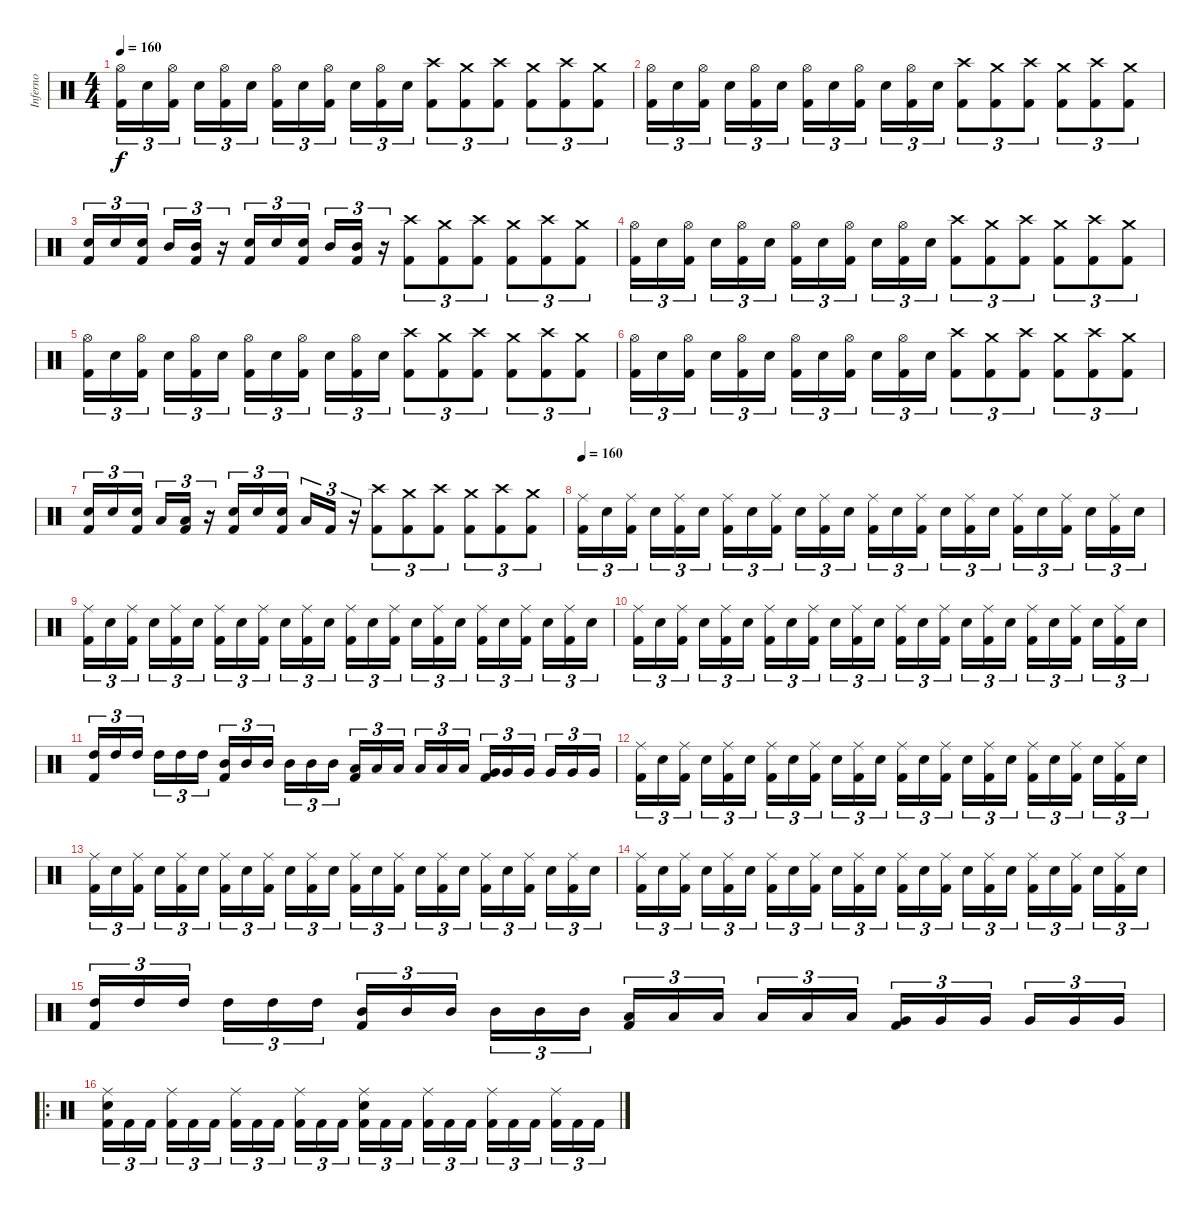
\track ("Inferno" "Inferno") {instrument percussion}
\staff {score}
\articulation defaults
\ts (4 4)
\tempo 160
\clef neutral
\ks c
("Hi-Hat (open)" "Kick (hit) 2").16{tu (3 2) dy f} "Electric Snare (hit)".16{tu (3 2)} ("Hi-Hat (open)" "Kick (hit) 2").16{tu (3 2)} "Electric Snare (hit)".16{tu (3 2)} ("Hi-Hat (open)" "Kick (hit) 2").16{tu (3 2)} "Electric Snare (hit)".16{tu (3 2)} ("Hi-Hat (open)" "Kick (hit) 2").16{tu (3 2)} "Electric Snare (hit)".16{tu (3 2)} ("Hi-Hat (open)" "Kick (hit) 2").16{tu (3 2)} "Electric Snare (hit)".16{tu (3 2)} ("Hi-Hat (open)" "Kick (hit) 2").16{tu (3 2)} "Electric Snare (hit)".16{tu (3 2)} ("Crash high (hit)" "Kick (hit) 2").8{tu (3 2)} ("Crash medium (hit)" "Kick (hit) 2").8{tu (3 2)} ("Crash high (hit)" "Kick (hit) 2").8{tu (3 2)} ("Crash medium (hit)" "Kick (hit) 2").8{tu (3 2)} ("Crash high (hit)" "Kick (hit) 2").8{tu (3 2)} ("Crash medium (hit)" "Kick (hit) 2").8{tu (3 2)} |
("Hi-Hat (open)" "Kick (hit) 2").16{tu (3 2)} "Electric Snare (hit)".16{tu (3 2)} ("Hi-Hat (open)" "Kick (hit) 2").16{tu (3 2)} "Electric Snare (hit)".16{tu (3 2)} ("Hi-Hat (open)" "Kick (hit) 2").16{tu (3 2)} "Electric Snare (hit)".16{tu (3 2)} ("Hi-Hat (open)" "Kick (hit) 2").16{tu (3 2)} "Electric Snare (hit)".16{tu (3 2)} ("Hi-Hat (open)" "Kick (hit) 2").16{tu (3 2)} "Electric Snare (hit)".16{tu (3 2)} ("Hi-Hat (open)" "Kick (hit) 2").16{tu (3 2)} "Electric Snare (hit)".16{tu (3 2)} ("Crash high (hit)" "Kick (hit) 2").8{tu (3 2)} ("Crash medium (hit)" "Kick (hit) 2").8{tu (3 2)} ("Crash high (hit)" "Kick (hit) 2").8{tu (3 2)} ("Crash medium (hit)" "Kick (hit) 2").8{tu (3 2)} ("Crash high (hit)" "Kick (hit) 2").8{tu (3 2)} ("Crash medium (hit)" "Kick (hit) 2").8{tu (3 2)} |
("Electric Snare (hit)" "Kick (hit) 2").16{tu (3 2)} "Electric Snare (hit)".16{tu (3 2)} ("Electric Snare (hit)" "Kick (hit) 2").16{tu (3 2)} "Mid Tom (hit)".16{tu (3 2)} ("Mid Tom (hit)" "Kick (hit) 2").16{tu (3 2)} r.16{tu (3 2)} ("Electric Snare (hit)" "Kick (hit) 2").16{tu (3 2)} "Electric Snare (hit)".16{tu (3 2)} ("Electric Snare (hit)" "Kick (hit) 2").16{tu (3 2)} "Mid Tom (hit)".16{tu (3 2)} ("Mid Tom (hit)" "Kick (hit) 2").16{tu (3 2)} r.16{tu (3 2)} ("Crash high (hit)" "Kick (hit) 2").8{tu (3 2)} ("Crash medium (hit)" "Kick (hit) 2").8{tu (3 2)} ("Crash high (hit)" "Kick (hit) 2").8{tu (3 2)} ("Crash medium (hit)" "Kick (hit) 2").8{tu (3 2)} ("Crash high (hit)" "Kick (hit) 2").8{tu (3 2)} ("Crash medium (hit)" "Kick (hit) 2").8{tu (3 2)} |
("Hi-Hat (open)" "Kick (hit) 2").16{tu (3 2)} "Electric Snare (hit)".16{tu (3 2)} ("Hi-Hat (open)" "Kick (hit) 2").16{tu (3 2)} "Electric Snare (hit)".16{tu (3 2)} ("Hi-Hat (open)" "Kick (hit) 2").16{tu (3 2)} "Electric Snare (hit)".16{tu (3 2)} ("Hi-Hat (open)" "Kick (hit) 2").16{tu (3 2)} "Electric Snare (hit)".16{tu (3 2)} ("Hi-Hat (open)" "Kick (hit) 2").16{tu (3 2)} "Electric Snare (hit)".16{tu (3 2)} ("Hi-Hat (open)" "Kick (hit) 2").16{tu (3 2)} "Electric Snare (hit)".16{tu (3 2)} ("Crash high (hit)" "Kick (hit) 2").8{tu (3 2)} ("Crash medium (hit)" "Kick (hit) 2").8{tu (3 2)} ("Crash high (hit)" "Kick (hit) 2").8{tu (3 2)} ("Crash medium (hit)" "Kick (hit) 2").8{tu (3 2)} ("Crash high (hit)" "Kick (hit) 2").8{tu (3 2)} ("Crash medium (hit)" "Kick (hit) 2").8{tu (3 2)} |
("Hi-Hat (open)" "Kick (hit) 2").16{tu (3 2)} "Electric Snare (hit)".16{tu (3 2)} ("Hi-Hat (open)" "Kick (hit) 2").16{tu (3 2)} "Electric Snare (hit)".16{tu (3 2)} ("Hi-Hat (open)" "Kick (hit) 2").16{tu (3 2)} "Electric Snare (hit)".16{tu (3 2)} ("Hi-Hat (open)" "Kick (hit) 2").16{tu (3 2)} "Electric Snare (hit)".16{tu (3 2)} ("Hi-Hat (open)" "Kick (hit) 2").16{tu (3 2)} "Electric Snare (hit)".16{tu (3 2)} ("Hi-Hat (open)" "Kick (hit) 2").16{tu (3 2)} "Electric Snare (hit)".16{tu (3 2)} ("Crash high (hit)" "Kick (hit) 2").8{tu (3 2)} ("Crash medium (hit)" "Kick (hit) 2").8{tu (3 2)} ("Crash high (hit)" "Kick (hit) 2").8{tu (3 2)} ("Crash medium (hit)" "Kick (hit) 2").8{tu (3 2)} ("Crash high (hit)" "Kick (hit) 2").8{tu (3 2)} ("Crash medium (hit)" "Kick (hit) 2").8{tu (3 2)} |
("Hi-Hat (open)" "Kick (hit) 2").16{tu (3 2)} "Electric Snare (hit)".16{tu (3 2)} ("Hi-Hat (open)" "Kick (hit) 2").16{tu (3 2)} "Electric Snare (hit)".16{tu (3 2)} ("Hi-Hat (open)" "Kick (hit) 2").16{tu (3 2)} "Electric Snare (hit)".16{tu (3 2)} ("Hi-Hat (open)" "Kick (hit) 2").16{tu (3 2)} "Electric Snare (hit)".16{tu (3 2)} ("Hi-Hat (open)" "Kick (hit) 2").16{tu (3 2)} "Electric Snare (hit)".16{tu (3 2)} ("Hi-Hat (open)" "Kick (hit) 2").16{tu (3 2)} "Electric Snare (hit)".16{tu (3 2)} ("Crash high (hit)" "Kick (hit) 2").8{tu (3 2)} ("Crash medium (hit)" "Kick (hit) 2").8{tu (3 2)} ("Crash high (hit)" "Kick (hit) 2").8{tu (3 2)} ("Crash medium (hit)" "Kick (hit) 2").8{tu (3 2)} ("Crash high (hit)" "Kick (hit) 2").8{tu (3 2)} ("Crash medium (hit)" "Kick (hit) 2").8{tu (3 2)} |
("Electric Snare (hit)" "Kick (hit) 2").16{tu (3 2)} "Electric Snare (hit)".16{tu (3 2)} ("Electric Snare (hit)" "Kick (hit) 2").16{tu (3 2)} "Low Tom (hit)".16{tu (3 2)} ("Low Tom (hit)" "Kick (hit) 2").16{tu (3 2)} r.16{tu (3 2)} ("Electric Snare (hit)" "Kick (hit) 2").16{tu (3 2)} "Electric Snare (hit)".16{tu (3 2)} ("Electric Snare (hit)" "Kick (hit) 2").16{tu (3 2)} "Low Tom (hit)".16{tu (3 2)} "Kick (hit) 2".16{tu (3 2)} r.16{tu (3 2)} ("Crash high (hit)" "Kick (hit) 2").8{tu (3 2)} ("Crash medium (hit)" "Kick (hit) 2").8{tu (3 2)} ("Crash high (hit)" "Kick (hit) 2").8{tu (3 2)} ("Crash medium (hit)" "Kick (hit) 2").8{tu (3 2)} ("Crash high (hit)" "Kick (hit) 2").8{tu (3 2)} ("Crash medium (hit)" "Kick (hit) 2").8{tu (3 2)} |
\tempo 160
("Ride (middle)" "Kick (hit) 2").16{tu (3 2)} "Electric Snare (hit)".16{tu (3 2)} ("Ride (middle)" "Kick (hit) 2").16{tu (3 2)} "Electric Snare (hit)".16{tu (3 2)} ("Ride (middle)" "Kick (hit) 2").16{tu (3 2)} "Electric Snare (hit)".16{tu (3 2)} ("Ride (middle)" "Kick (hit) 2").16{tu (3 2)} "Electric Snare (hit)".16{tu (3 2)} ("Ride (middle)" "Kick (hit) 2").16{tu (3 2)} "Electric Snare (hit)".16{tu (3 2)} ("Ride (middle)" "Kick (hit) 2").16{tu (3 2)} "Electric Snare (hit)".16{tu (3 2)} ("Ride (middle)" "Kick (hit) 2").16{tu (3 2)} "Electric Snare (hit)".16{tu (3 2)} ("Ride (middle)" "Kick (hit) 2").16{tu (3 2)} "Electric Snare (hit)".16{tu (3 2)} ("Ride (middle)" "Kick (hit) 2").16{tu (3 2)} "Electric Snare (hit)".16{tu (3 2)} ("Ride (middle)" "Kick (hit) 2").16{tu (3 2)} "Electric Snare (hit)".16{tu (3 2)} ("Ride (middle)" "Kick (hit) 2").16{tu (3 2)} "Electric Snare (hit)".16{tu (3 2)} ("Ride (middle)" "Kick (hit) 2").16{tu (3 2)} "Electric Snare (hit)".16{tu (3 2)} |
("Ride (middle)" "Kick (hit) 2").16{tu (3 2)} "Electric Snare (hit)".16{tu (3 2)} ("Ride (middle)" "Kick (hit) 2").16{tu (3 2)} "Electric Snare (hit)".16{tu (3 2)} ("Ride (middle)" "Kick (hit) 2").16{tu (3 2)} "Electric Snare (hit)".16{tu (3 2)} ("Ride (middle)" "Kick (hit) 2").16{tu (3 2)} "Electric Snare (hit)".16{tu (3 2)} ("Ride (middle)" "Kick (hit) 2").16{tu (3 2)} "Electric Snare (hit)".16{tu (3 2)} ("Ride (middle)" "Kick (hit) 2").16{tu (3 2)} "Electric Snare (hit)".16{tu (3 2)} ("Ride (middle)" "Kick (hit) 2").16{tu (3 2)} "Electric Snare (hit)".16{tu (3 2)} ("Ride (middle)" "Kick (hit) 2").16{tu (3 2)} "Electric Snare (hit)".16{tu (3 2)} ("Ride (middle)" "Kick (hit) 2").16{tu (3 2)} "Electric Snare (hit)".16{tu (3 2)} ("Ride (middle)" "Kick (hit) 2").16{tu (3 2)} "Electric Snare (hit)".16{tu (3 2)} ("Ride (middle)" "Kick (hit) 2").16{tu (3 2)} "Electric Snare (hit)".16{tu (3 2)} ("Ride (middle)" "Kick (hit) 2").16{tu (3 2)} "Electric Snare (hit)".16{tu (3 2)} |
("Ride (middle)" "Kick (hit) 2").16{tu (3 2)} "Electric Snare (hit)".16{tu (3 2)} ("Ride (middle)" "Kick (hit) 2").16{tu (3 2)} "Electric Snare (hit)".16{tu (3 2)} ("Ride (middle)" "Kick (hit) 2").16{tu (3 2)} "Electric Snare (hit)".16{tu (3 2)} ("Ride (middle)" "Kick (hit) 2").16{tu (3 2)} "Electric Snare (hit)".16{tu (3 2)} ("Ride (middle)" "Kick (hit) 2").16{tu (3 2)} "Electric Snare (hit)".16{tu (3 2)} ("Ride (middle)" "Kick (hit) 2").16{tu (3 2)} "Electric Snare (hit)".16{tu (3 2)} ("Ride (middle)" "Kick (hit) 2").16{tu (3 2)} "Electric Snare (hit)".16{tu (3 2)} ("Ride (middle)" "Kick (hit) 2").16{tu (3 2)} "Electric Snare (hit)".16{tu (3 2)} ("Ride (middle)" "Kick (hit) 2").16{tu (3 2)} "Electric Snare (hit)".16{tu (3 2)} ("Ride (middle)" "Kick (hit) 2").16{tu (3 2)} "Electric Snare (hit)".16{tu (3 2)} ("Ride (middle)" "Kick (hit) 2").16{tu (3 2)} "Electric Snare (hit)".16{tu (3 2)} ("Ride (middle)" "Kick (hit) 2").16{tu (3 2)} "Electric Snare (hit)".16{tu (3 2)} |
("High Tom (hit)" "Kick (hit) 2").16{tu (3 2)} "High Tom (hit)".16{tu (3 2)} "High Tom (hit)".16{tu (3 2)} "High Tom (hit)".16{tu (3 2)} "High Tom (hit)".16{tu (3 2)} "High Tom (hit)".16{tu (3 2)} ("Mid Tom (hit)" "Kick (hit) 2").16{tu (3 2)} "Mid Tom (hit)".16{tu (3 2)} "Mid Tom (hit)".16{tu (3 2)} "Mid Tom (hit)".16{tu (3 2)} "Mid Tom (hit)".16{tu (3 2)} "Mid Tom (hit)".16{tu (3 2)} ("Low Tom (hit)" "Kick (hit) 2").16{tu (3 2)} "Low Tom (hit)".16{tu (3 2)} "Low Tom (hit)".16{tu (3 2)} "Low Tom (hit)".16{tu (3 2)} "Low Tom (hit)".16{tu (3 2)} "Low Tom (hit)".16{tu (3 2)} ("Very Low Tom (hit)" "Kick (hit) 2").16{tu (3 2)} "Very Low Tom (hit)".16{tu (3 2)} "Very Low Tom (hit)".16{tu (3 2)} "Very Low Tom (hit)".16{tu (3 2)} "Very Low Tom (hit)".16{tu (3 2)} "Very Low Tom (hit)".16{tu (3 2)} |
("Ride (middle)" "Kick (hit) 2").16{tu (3 2)} "Electric Snare (hit)".16{tu (3 2)} ("Ride (middle)" "Kick (hit) 2").16{tu (3 2)} "Electric Snare (hit)".16{tu (3 2)} ("Ride (middle)" "Kick (hit) 2").16{tu (3 2)} "Electric Snare (hit)".16{tu (3 2)} ("Ride (middle)" "Kick (hit) 2").16{tu (3 2)} "Electric Snare (hit)".16{tu (3 2)} ("Ride (middle)" "Kick (hit) 2").16{tu (3 2)} "Electric Snare (hit)".16{tu (3 2)} ("Ride (middle)" "Kick (hit) 2").16{tu (3 2)} "Electric Snare (hit)".16{tu (3 2)} ("Ride (middle)" "Kick (hit) 2").16{tu (3 2)} "Electric Snare (hit)".16{tu (3 2)} ("Ride (middle)" "Kick (hit) 2").16{tu (3 2)} "Electric Snare (hit)".16{tu (3 2)} ("Ride (middle)" "Kick (hit) 2").16{tu (3 2)} "Electric Snare (hit)".16{tu (3 2)} ("Ride (middle)" "Kick (hit) 2").16{tu (3 2)} "Electric Snare (hit)".16{tu (3 2)} ("Ride (middle)" "Kick (hit) 2").16{tu (3 2)} "Electric Snare (hit)".16{tu (3 2)} ("Ride (middle)" "Kick (hit) 2").16{tu (3 2)} "Electric Snare (hit)".16{tu (3 2)} |
("Ride (middle)" "Kick (hit) 2").16{tu (3 2)} "Electric Snare (hit)".16{tu (3 2)} ("Ride (middle)" "Kick (hit) 2").16{tu (3 2)} "Electric Snare (hit)".16{tu (3 2)} ("Ride (middle)" "Kick (hit) 2").16{tu (3 2)} "Electric Snare (hit)".16{tu (3 2)} ("Ride (middle)" "Kick (hit) 2").16{tu (3 2)} "Electric Snare (hit)".16{tu (3 2)} ("Ride (middle)" "Kick (hit) 2").16{tu (3 2)} "Electric Snare (hit)".16{tu (3 2)} ("Ride (middle)" "Kick (hit) 2").16{tu (3 2)} "Electric Snare (hit)".16{tu (3 2)} ("Ride (middle)" "Kick (hit) 2").16{tu (3 2)} "Electric Snare (hit)".16{tu (3 2)} ("Ride (middle)" "Kick (hit) 2").16{tu (3 2)} "Electric Snare (hit)".16{tu (3 2)} ("Ride (middle)" "Kick (hit) 2").16{tu (3 2)} "Electric Snare (hit)".16{tu (3 2)} ("Ride (middle)" "Kick (hit) 2").16{tu (3 2)} "Electric Snare (hit)".16{tu (3 2)} ("Ride (middle)" "Kick (hit) 2").16{tu (3 2)} "Electric Snare (hit)".16{tu (3 2)} ("Ride (middle)" "Kick (hit) 2").16{tu (3 2)} "Electric Snare (hit)".16{tu (3 2)} |
("Ride (middle)" "Kick (hit) 2").16{tu (3 2)} "Electric Snare (hit)".16{tu (3 2)} ("Ride (middle)" "Kick (hit) 2").16{tu (3 2)} "Electric Snare (hit)".16{tu (3 2)} ("Ride (middle)" "Kick (hit) 2").16{tu (3 2)} "Electric Snare (hit)".16{tu (3 2)} ("Ride (middle)" "Kick (hit) 2").16{tu (3 2)} "Electric Snare (hit)".16{tu (3 2)} ("Ride (middle)" "Kick (hit) 2").16{tu (3 2)} "Electric Snare (hit)".16{tu (3 2)} ("Ride (middle)" "Kick (hit) 2").16{tu (3 2)} "Electric Snare (hit)".16{tu (3 2)} ("Ride (middle)" "Kick (hit) 2").16{tu (3 2)} "Electric Snare (hit)".16{tu (3 2)} ("Ride (middle)" "Kick (hit) 2").16{tu (3 2)} "Electric Snare (hit)".16{tu (3 2)} ("Ride (middle)" "Kick (hit) 2").16{tu (3 2)} "Electric Snare (hit)".16{tu (3 2)} ("Ride (middle)" "Kick (hit) 2").16{tu (3 2)} "Electric Snare (hit)".16{tu (3 2)} ("Ride (middle)" "Kick (hit) 2").16{tu (3 2)} "Electric Snare (hit)".16{tu (3 2)} ("Ride (middle)" "Kick (hit) 2").16{tu (3 2)} "Electric Snare (hit)".16{tu (3 2)} |
("High Tom (hit)" "Kick (hit) 2").16{tu (3 2)} "High Tom (hit)".16{tu (3 2)} "High Tom (hit)".16{tu (3 2)} "High Tom (hit)".16{tu (3 2)} "High Tom (hit)".16{tu (3 2)} "High Tom (hit)".16{tu (3 2)} ("Mid Tom (hit)" "Kick (hit) 2").16{tu (3 2)} "Mid Tom (hit)".16{tu (3 2)} "Mid Tom (hit)".16{tu (3 2)} "Mid Tom (hit)".16{tu (3 2)} "Mid Tom (hit)".16{tu (3 2)} "Mid Tom (hit)".16{tu (3 2)} ("Low Tom (hit)" "Kick (hit) 2").16{tu (3 2)} "Low Tom (hit)".16{tu (3 2)} "Low Tom (hit)".16{tu (3 2)} "Low Tom (hit)".16{tu (3 2)} "Low Tom (hit)".16{tu (3 2)} "Low Tom (hit)".16{tu (3 2)} ("Very Low Tom (hit)" "Kick (hit) 2").16{tu (3 2)} "Very Low Tom (hit)".16{tu (3 2)} "Very Low Tom (hit)".16{tu (3 2)} "Very Low Tom (hit)".16{tu (3 2)} "Very Low Tom (hit)".16{tu (3 2)} "Very Low Tom (hit)".16{tu (3 2)} |
\ro
("Ride (middle)" "Electric Snare (hit)" "Kick (hit) 2").16{tu (3 2)} "Kick (hit) 2".16{tu (3 2)} "Kick (hit) 2".16{tu (3 2)} ("Ride (middle)" "Kick (hit) 2").16{tu (3 2)} "Kick (hit) 2".16{tu (3 2)} "Kick (hit) 2".16{tu (3 2)} ("Ride (middle)" "Kick (hit) 2").16{tu (3 2)} "Kick (hit) 2".16{tu (3 2)} "Kick (hit) 2".16{tu (3 2)} ("Ride (middle)" "Kick (hit) 2").16{tu (3 2)} "Kick (hit) 2".16{tu (3 2)} "Kick (hit) 2".16{tu (3 2)} ("Ride (middle)" "Electric Snare (hit)" "Kick (hit) 2").16{tu (3 2)} "Kick (hit) 2".16{tu (3 2)} "Kick (hit) 2".16{tu (3 2)} ("Ride (middle)" "Kick (hit) 2").16{tu (3 2)} "Kick (hit) 2".16{tu (3 2)} "Kick (hit) 2".16{tu (3 2)} ("Ride (middle)" "Kick (hit) 2").16{tu (3 2)} "Kick (hit) 2".16{tu (3 2)} "Kick (hit) 2".16{tu (3 2)} ("Ride (middle)" "Kick (hit) 2").16{tu (3 2)} "Kick (hit) 2".16{tu (3 2)} "Kick (hit) 2".16{tu (3 2)}
